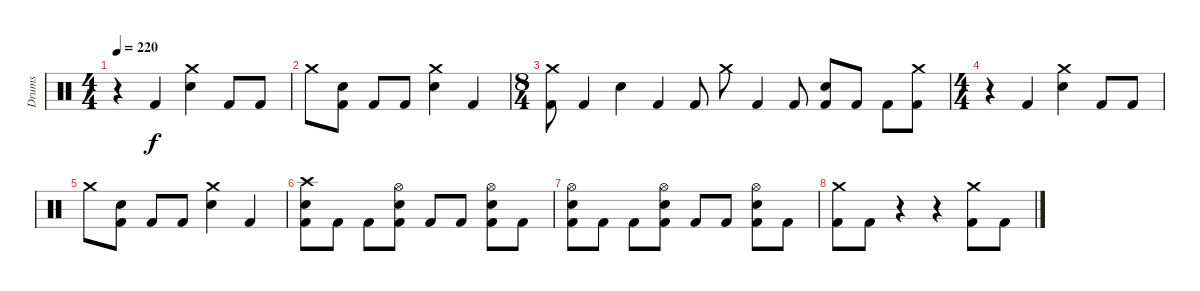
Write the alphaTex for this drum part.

\track ("Drums" "Drums") {instrument percussion}
\staff {score}
\articulation defaults
\ts (4 4)
\tempo 220
\clef neutral
\ks c
r.4{dy f} "Kick (hit) 2".4 ("Crash medium (hit)" "Snare (hit) 2").4 "Kick (hit) 2".8 "Kick (hit) 2".8 |
"Crash medium (hit)".8 ("Snare (hit) 2" "Kick (hit) 2").8 "Kick (hit) 2".8 "Kick (hit) 2".8 ("Crash medium (hit)" "Snare (hit) 2").4 "Kick (hit) 2".4 |
\ts (8 4)
("Crash medium (hit)" "Kick (hit) 2").8 "Kick (hit) 2".4 "Snare (hit) 2".4 "Kick (hit) 2".4 "Kick (hit) 2".8 "Crash medium (hit)".8 "Kick (hit) 2".4 "Kick (hit) 2".8 ("Snare (hit) 2" "Kick (hit) 2").8 "Kick (hit) 2".8 "Kick (hit) 2".8 ("Crash medium (hit)" "Kick (hit) 2").8 |
\ts (4 4)
r.4 "Kick (hit) 2".4 ("Crash medium (hit)" "Snare (hit) 2").4 "Kick (hit) 2".8 "Kick (hit) 2".8 |
"Crash medium (hit)".8 ("Snare (hit) 2" "Kick (hit) 2").8 "Kick (hit) 2".8 "Kick (hit) 2".8 ("Crash medium (hit)" "Snare (hit) 2").4 "Kick (hit) 2".4 |
("Crash high (hit)" "Snare (hit) 2" "Kick (hit) 2").8 "Kick (hit) 2".8 "Kick (hit) 2".8 ("Hi-Hat (open)" "Snare (hit) 2" "Kick (hit) 2").8 "Kick (hit) 2".8 "Kick (hit) 2".8 ("Hi-Hat (open)" "Snare (hit) 2" "Kick (hit) 2").8 "Kick (hit) 2".8 |
("Hi-Hat (open)" "Snare (hit) 2" "Kick (hit) 2").8 "Kick (hit) 2".8 "Kick (hit) 2".8 ("Hi-Hat (open)" "Snare (hit) 2" "Kick (hit) 2").8 "Kick (hit) 2".8 "Kick (hit) 2".8 ("Hi-Hat (open)" "Snare (hit) 2" "Kick (hit) 2").8 "Kick (hit) 2".8 |
("Crash medium (hit)" "Kick (hit) 2").8 "Kick (hit) 2".8 r.4 r.4 ("Crash medium (hit)" "Kick (hit) 2").8 "Kick (hit) 2".8
